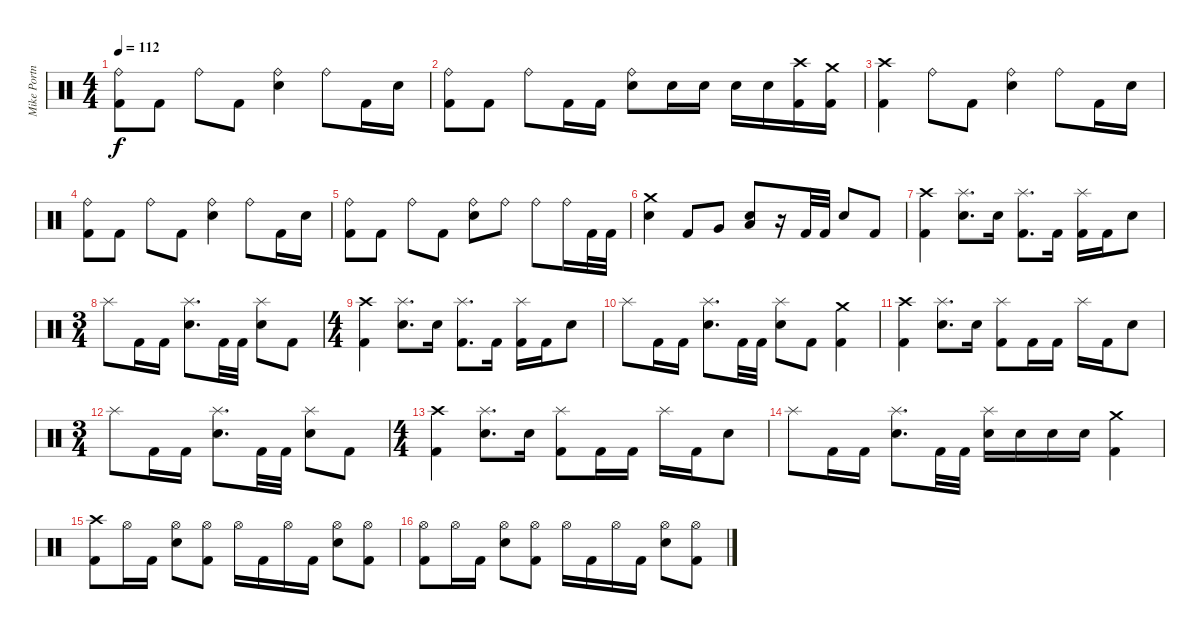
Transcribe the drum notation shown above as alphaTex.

\track ("Mike Portnoy" "Mike Portn") {instrument percussion}
\staff {score}
\articulation defaults
\ts (4 4)
\tempo 112
\clef neutral
\ks c
("Kick (hit) 2" "Ride (bell)").8{dy f} "Kick (hit) 2".8 "Ride (bell)".8 "Kick (hit) 2".8 ("Electric Snare (hit)" "Ride (bell)").4 "Ride (bell)".8 "Kick (hit) 2".16 "Electric Snare (hit)".16 |
("Kick (hit) 2" "Ride (bell)").8 "Kick (hit) 2".8 "Ride (bell)".8 "Kick (hit) 2".16 "Kick (hit) 2".16 ("Electric Snare (hit)" "Ride (bell)").8 "Electric Snare (hit)".16 "Electric Snare (hit)".16 "Electric Snare (hit)".16 "Electric Snare (hit)".16 ("Kick (hit) 2" "Crash high (hit)").16 ("Kick (hit) 2" "Crash medium (hit)").16 |
("Kick (hit) 2" "Crash high (hit)").4 "Ride (bell)".8 "Kick (hit) 2".8 ("Electric Snare (hit)" "Ride (bell)").4 "Ride (bell)".8 "Kick (hit) 2".16 "Electric Snare (hit)".16 |
("Kick (hit) 2" "Ride (bell)").8 "Kick (hit) 2".8 "Ride (bell)".8 "Kick (hit) 2".8 ("Electric Snare (hit)" "Ride (bell)").4 "Ride (bell)".8 "Kick (hit) 2".16 "Electric Snare (hit)".16 |
("Kick (hit) 2" "Ride (bell)").8 "Kick (hit) 2".8 "Ride (bell)".8 "Kick (hit) 2".8 ("Electric Snare (hit)" "Ride (bell)").8 "Ride (bell)".8 "Ride (bell)".8 "Ride (bell)".16 "Kick (hit) 2".32 "Kick (hit) 2".32 |
("Electric Snare (hit)" "Crash medium (hit)").4 "Kick (hit) 2".8 "Very Low Tom (hit)".8 ("Electric Snare (hit)" "Low Tom (hit)").8 r.16 "Kick (hit) 2".32 "Kick (hit) 2".32 "Electric Snare (hit)".8 "Kick (hit) 2".8 |
("Kick (hit) 2" "Crash high (hit)").4 ("Electric Snare (hit)" "Splash (hit)").8{d} "Electric Snare (hit)".16 ("Kick (hit) 2" "Splash (hit)").8{d} "Kick (hit) 2".16 ("Kick (hit) 2" "Splash (hit)").16 "Kick (hit) 2".16 "Electric Snare (hit)".8 |
\ts (3 4)
"Splash (hit)".8 "Kick (hit) 2".16 "Kick (hit) 2".16 ("Electric Snare (hit)" "Splash (hit)").8{d} "Kick (hit) 2".32 "Kick (hit) 2".32 ("Electric Snare (hit)" "Splash (hit)").8 "Kick (hit) 2".8 |
\ts (4 4)
("Kick (hit) 2" "Crash high (hit)").4 ("Electric Snare (hit)" "Splash (hit)").8{d} "Electric Snare (hit)".16 ("Kick (hit) 2" "Splash (hit)").8{d} "Kick (hit) 2".16 ("Kick (hit) 2" "Splash (hit)").16 "Kick (hit) 2".16 "Electric Snare (hit)".8 |
"Splash (hit)".8 "Kick (hit) 2".16 "Kick (hit) 2".16 ("Electric Snare (hit)" "Splash (hit)").8{d} "Kick (hit) 2".32 "Kick (hit) 2".32 ("Electric Snare (hit)" "Splash (hit)").8 "Kick (hit) 2".8 ("Kick (hit) 2" "Crash medium (hit)").4 |
("Kick (hit) 2" "Crash high (hit)").4 ("Electric Snare (hit)" "Splash (hit)").8{d} "Electric Snare (hit)".16 ("Kick (hit) 2" "Splash (hit)").8 "Kick (hit) 2".16 "Kick (hit) 2".16 "Splash (hit)".16 "Kick (hit) 2".16 "Electric Snare (hit)".8 |
\ts (3 4)
"Splash (hit)".8 "Kick (hit) 2".16 "Kick (hit) 2".16 ("Electric Snare (hit)" "Splash (hit)").8{d} "Kick (hit) 2".32 "Kick (hit) 2".32 ("Electric Snare (hit)" "Splash (hit)").8 "Kick (hit) 2".8 |
\ts (4 4)
("Kick (hit) 2" "Crash high (hit)").4 ("Electric Snare (hit)" "Splash (hit)").8{d} "Electric Snare (hit)".16 ("Kick (hit) 2" "Splash (hit)").8 "Kick (hit) 2".16 "Kick (hit) 2".16 "Splash (hit)".16 "Kick (hit) 2".16 "Electric Snare (hit)".8 |
"Splash (hit)".8 "Kick (hit) 2".16 "Kick (hit) 2".16 ("Electric Snare (hit)" "Splash (hit)").8{d} "Kick (hit) 2".32 "Kick (hit) 2".32 ("Electric Snare (hit)" "Splash (hit)").16 "Electric Snare (hit)".16 "Electric Snare (hit)".16 "Electric Snare (hit)".16 ("Kick (hit) 2" "Crash medium (hit)").4 |
("Kick (hit) 2" "Crash high (hit)").8 "Hi-Hat (open)".16 "Kick (hit) 2".16 ("Electric Snare (hit)" "Hi-Hat (open)").8 ("Kick (hit) 2" "Hi-Hat (open)").8 "Hi-Hat (open)".16 "Kick (hit) 2".16 "Hi-Hat (open)".16 "Kick (hit) 2".16 ("Electric Snare (hit)" "Hi-Hat (open)").8 ("Kick (hit) 2" "Hi-Hat (open)").8 |
("Kick (hit) 2" "Hi-Hat (open)").8 "Hi-Hat (open)".16 "Kick (hit) 2".16 ("Electric Snare (hit)" "Hi-Hat (open)").8 ("Kick (hit) 2" "Hi-Hat (open)").8 "Hi-Hat (open)".16 "Kick (hit) 2".16 "Hi-Hat (open)".16 "Kick (hit) 2".16 ("Electric Snare (hit)" "Hi-Hat (open)").8 ("Kick (hit) 2" "Hi-Hat (open)").8
